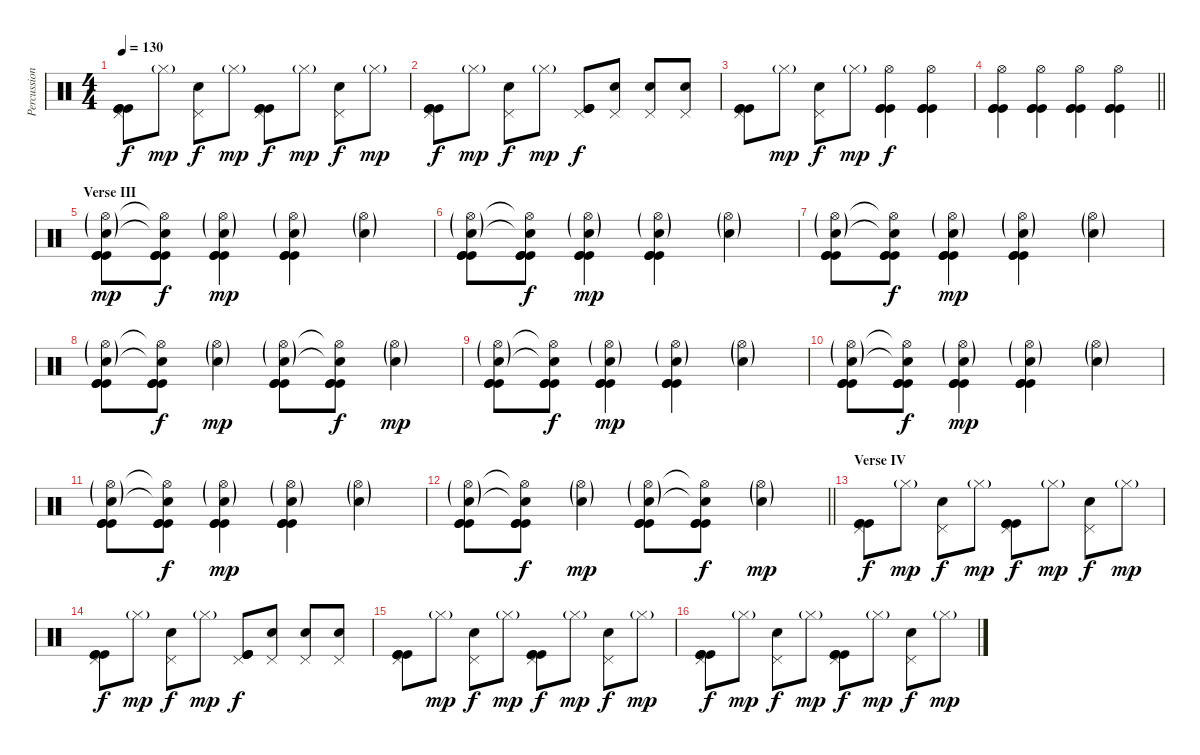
\track ("Percussion" "Percussion") {instrument percussion}
\staff {score}
\articulation defaults
\ts (4 4)
\tempo 130
\clef neutral
\ks c
("Pedal Hi-Hat (hit)" "Kick (hit)" "Kick (hit)" "Kick (hit)").8{dy f} "Hi-Hat (closed)"{g}.8{dy mp} ("Pedal Hi-Hat (hit)" "Snare (hit) 2").8{dy f} "Hi-Hat (closed)"{g}.8{dy mp} ("Pedal Hi-Hat (hit)" "Kick (hit)" "Kick (hit)" "Kick (hit)").8{dy f} "Hi-Hat (closed)"{g}.8{dy mp} ("Pedal Hi-Hat (hit)" "Snare (hit) 2").8{dy f} "Hi-Hat (closed)"{g}.8{dy mp} |
("Pedal Hi-Hat (hit)" "Kick (hit)" "Kick (hit)" "Kick (hit)").8{dy f} "Hi-Hat (closed)"{g}.8{dy mp} ("Pedal Hi-Hat (hit)" "Snare (hit) 2").8{dy f} "Hi-Hat (closed)"{g}.8{dy mp} ("Pedal Hi-Hat (hit)" "Kick (hit)" "Kick (hit)" "Kick (hit)").8{dy f} ("Pedal Hi-Hat (hit)" "Snare (hit) 2").8 ("Pedal Hi-Hat (hit)" "Snare (hit) 2").8 ("Pedal Hi-Hat (hit)" "Snare (hit) 2").8 |
("Pedal Hi-Hat (hit)" "Kick (hit)" "Kick (hit)" "Kick (hit)").8 "Hi-Hat (closed)"{g}.8{dy mp} ("Pedal Hi-Hat (hit)" "Snare (hit) 2").8{dy f} "Hi-Hat (closed)"{g}.8{dy mp} ("Hi-Hat (open)" "Kick (hit)" "Kick (hit)" "Kick (hit)").4{dy f} ("Hi-Hat (open)" "Kick (hit)" "Kick (hit)" "Kick (hit)").4 |
\barLineRight lightlight
("Hi-Hat (open)" "Kick (hit)" "Kick (hit)" "Kick (hit)").4{volume 16} ("Hi-Hat (open)" "Kick (hit)" "Kick (hit)" "Kick (hit)").4 ("Hi-Hat (open)" "Kick (hit)" "Kick (hit)" "Kick (hit)").4 ("Hi-Hat (open)" "Kick (hit)" "Kick (hit)" "Kick (hit)").4 |
\section ("" "Verse III")
("Hi-Hat (open)"{g} "Snare (hit) 2"{g} "Kick (hit)" "Kick (hit)" "Kick (hit)").8{dy mp volume 10} ("Hi-Hat (open)"{t} "Snare (hit) 2"{t} "Kick (hit)" "Kick (hit)" "Kick (hit)").8{dy f} ("Hi-Hat (open)"{g} "Snare (hit) 2"{g} "Kick (hit)" "Kick (hit)" "Kick (hit)").4{dy mp} ("Hi-Hat (open)"{g} "Snare (hit) 2"{g} "Kick (hit)" "Kick (hit)" "Kick (hit)").4 ("Hi-Hat (open)"{g} "Snare (hit) 2"{g}).4 |
("Hi-Hat (open)"{g} "Snare (hit) 2"{g} "Kick (hit)" "Kick (hit)" "Kick (hit)").8 ("Hi-Hat (open)"{t} "Snare (hit) 2"{t} "Kick (hit)" "Kick (hit)" "Kick (hit)").8{dy f} ("Hi-Hat (open)"{g} "Snare (hit) 2"{g} "Kick (hit)" "Kick (hit)" "Kick (hit)").4{dy mp} ("Hi-Hat (open)"{g} "Snare (hit) 2"{g} "Kick (hit)" "Kick (hit)" "Kick (hit)").4 ("Hi-Hat (open)"{g} "Snare (hit) 2"{g}).4 |
("Hi-Hat (open)"{g} "Snare (hit) 2"{g} "Kick (hit)" "Kick (hit)" "Kick (hit)").8 ("Hi-Hat (open)"{t} "Snare (hit) 2"{t} "Kick (hit)" "Kick (hit)" "Kick (hit)").8{dy f} ("Hi-Hat (open)"{g} "Snare (hit) 2"{g} "Kick (hit)" "Kick (hit)" "Kick (hit)").4{dy mp} ("Hi-Hat (open)"{g} "Snare (hit) 2"{g} "Kick (hit)" "Kick (hit)" "Kick (hit)").4 ("Hi-Hat (open)"{g} "Snare (hit) 2"{g}).4 |
("Hi-Hat (open)"{g} "Snare (hit) 2"{g} "Kick (hit)" "Kick (hit)" "Kick (hit)").8 ("Hi-Hat (open)"{t} "Snare (hit) 2"{t} "Kick (hit)" "Kick (hit)" "Kick (hit)").8{dy f} ("Hi-Hat (open)"{g} "Snare (hit) 2"{g}).4{dy mp} ("Hi-Hat (open)"{g} "Snare (hit) 2"{g} "Kick (hit)" "Kick (hit)" "Kick (hit)").8 ("Hi-Hat (open)"{t} "Snare (hit) 2"{t} "Kick (hit)" "Kick (hit)" "Kick (hit)").8{dy f} ("Hi-Hat (open)"{g} "Snare (hit) 2"{g}).4{dy mp} |
("Hi-Hat (open)"{g} "Snare (hit) 2"{g} "Kick (hit)" "Kick (hit)" "Kick (hit)").8 ("Hi-Hat (open)"{t} "Snare (hit) 2"{t} "Kick (hit)" "Kick (hit)" "Kick (hit)").8{dy f} ("Hi-Hat (open)"{g} "Snare (hit) 2"{g} "Kick (hit)" "Kick (hit)" "Kick (hit)").4{dy mp} ("Hi-Hat (open)"{g} "Snare (hit) 2"{g} "Kick (hit)" "Kick (hit)" "Kick (hit)").4 ("Hi-Hat (open)"{g} "Snare (hit) 2"{g}).4 |
("Hi-Hat (open)"{g} "Snare (hit) 2"{g} "Kick (hit)" "Kick (hit)" "Kick (hit)").8 ("Hi-Hat (open)"{t} "Snare (hit) 2"{t} "Kick (hit)" "Kick (hit)" "Kick (hit)").8{dy f} ("Hi-Hat (open)"{g} "Snare (hit) 2"{g} "Kick (hit)" "Kick (hit)" "Kick (hit)").4{dy mp} ("Hi-Hat (open)"{g} "Snare (hit) 2"{g} "Kick (hit)" "Kick (hit)" "Kick (hit)").4 ("Hi-Hat (open)"{g} "Snare (hit) 2"{g}).4 |
("Hi-Hat (open)"{g} "Snare (hit) 2"{g} "Kick (hit)" "Kick (hit)" "Kick (hit)").8 ("Hi-Hat (open)"{t} "Snare (hit) 2"{t} "Kick (hit)" "Kick (hit)" "Kick (hit)").8{dy f} ("Hi-Hat (open)"{g} "Snare (hit) 2"{g} "Kick (hit)" "Kick (hit)" "Kick (hit)").4{dy mp} ("Hi-Hat (open)"{g} "Snare (hit) 2"{g} "Kick (hit)" "Kick (hit)" "Kick (hit)").4 ("Hi-Hat (open)"{g} "Snare (hit) 2"{g}).4 |
\barLineRight lightlight
("Hi-Hat (open)"{g} "Snare (hit) 2"{g} "Kick (hit)" "Kick (hit)" "Kick (hit)").8 ("Hi-Hat (open)"{t} "Snare (hit) 2"{t} "Kick (hit)" "Kick (hit)" "Kick (hit)").8{dy f} ("Hi-Hat (open)"{g} "Snare (hit) 2"{g}).4{dy mp} ("Hi-Hat (open)"{g} "Snare (hit) 2"{g} "Kick (hit)" "Kick (hit)" "Kick (hit)").8 ("Hi-Hat (open)"{t} "Snare (hit) 2"{t} "Kick (hit)" "Kick (hit)" "Kick (hit)").8{dy f} ("Hi-Hat (open)"{g} "Snare (hit) 2"{g}).4{dy mp} |
\section ("" "Verse IV")
("Pedal Hi-Hat (hit)" "Kick (hit)" "Kick (hit)" "Kick (hit)").8{dy f} "Hi-Hat (closed)"{g}.8{dy mp} ("Pedal Hi-Hat (hit)" "Snare (hit) 2").8{dy f} "Hi-Hat (closed)"{g}.8{dy mp} ("Pedal Hi-Hat (hit)" "Kick (hit)" "Kick (hit)" "Kick (hit)").8{dy f} "Hi-Hat (closed)"{g}.8{dy mp} ("Pedal Hi-Hat (hit)" "Snare (hit) 2").8{dy f} "Hi-Hat (closed)"{g}.8{dy mp} |
("Pedal Hi-Hat (hit)" "Kick (hit)" "Kick (hit)" "Kick (hit)").8{dy f} "Hi-Hat (closed)"{g}.8{dy mp} ("Pedal Hi-Hat (hit)" "Snare (hit) 2").8{dy f} "Hi-Hat (closed)"{g}.8{dy mp} ("Pedal Hi-Hat (hit)" "Kick (hit)" "Kick (hit)" "Kick (hit)").8{dy f} ("Pedal Hi-Hat (hit)" "Snare (hit) 2").8 ("Pedal Hi-Hat (hit)" "Snare (hit) 2").8 ("Pedal Hi-Hat (hit)" "Snare (hit) 2").8 |
("Pedal Hi-Hat (hit)" "Kick (hit)" "Kick (hit)" "Kick (hit)").8 "Hi-Hat (closed)"{g}.8{dy mp} ("Pedal Hi-Hat (hit)" "Snare (hit) 2").8{dy f} "Hi-Hat (closed)"{g}.8{dy mp} ("Pedal Hi-Hat (hit)" "Kick (hit)" "Kick (hit)" "Kick (hit)").8{dy f} "Hi-Hat (closed)"{g}.8{dy mp} ("Pedal Hi-Hat (hit)" "Snare (hit) 2").8{dy f} "Hi-Hat (closed)"{g}.8{dy mp} |
("Pedal Hi-Hat (hit)" "Kick (hit)" "Kick (hit)" "Kick (hit)").8{dy f} "Hi-Hat (closed)"{g}.8{dy mp} ("Pedal Hi-Hat (hit)" "Snare (hit) 2").8{dy f} "Hi-Hat (closed)"{g}.8{dy mp} ("Pedal Hi-Hat (hit)" "Kick (hit)" "Kick (hit)" "Kick (hit)").8{dy f} "Hi-Hat (closed)"{g}.8{dy mp} ("Pedal Hi-Hat (hit)" "Snare (hit) 2").8{dy f} "Hi-Hat (closed)"{g}.8{dy mp}
